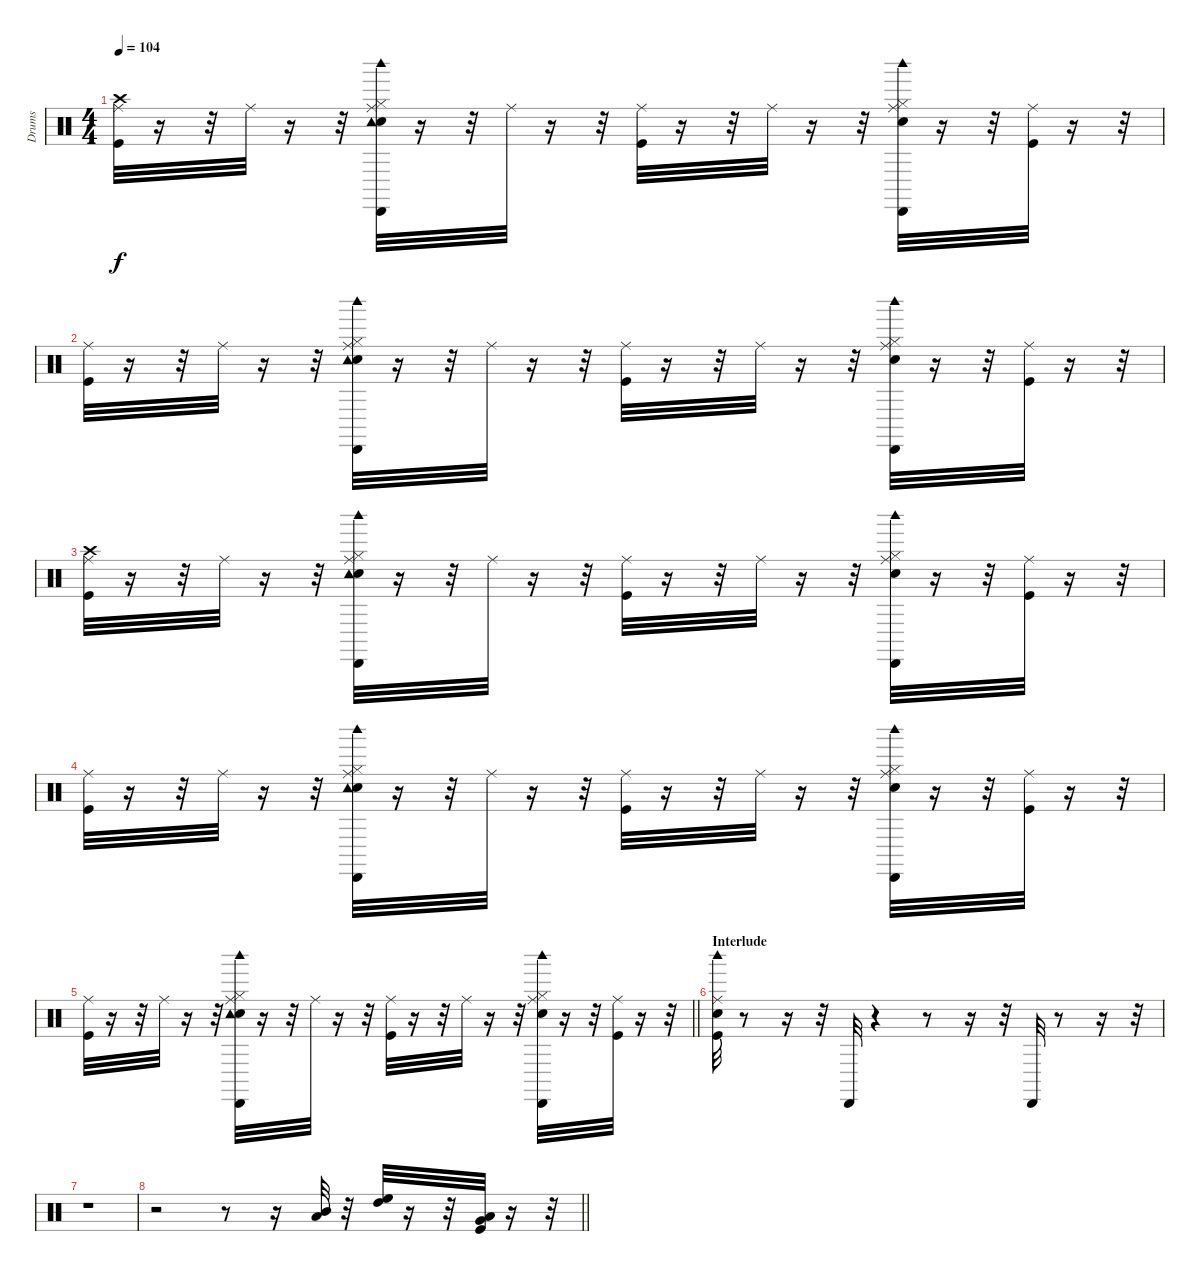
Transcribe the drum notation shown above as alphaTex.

\track ("Drums" "Drums") {instrument percussion}
\staff {score}
\articulation defaults
\ts (4 4)
\tempo 104
\clef neutral
\ks c
("Kick (hit)" "Crash high (hit)" "Ride (middle)").32{dy f} r.16 r.32 "Ride (middle)".32 r.16 r.32 ("Snare (hit) 2" "Hi-Hat (closed)" "Ride (middle)" "Tambourine (hit)" "Cabasa (hit)" "Woodblock high (hit)").32 r.16 r.32 "Ride (middle)".32 r.16 r.32 ("Kick (hit)" "Ride (middle)").32 r.16 r.32 "Ride (middle)".32 r.16 r.32 ("Snare (hit) 2" "Hi-Hat (closed)" "Ride (middle)" "Cabasa (hit)" "Woodblock high (hit)").32 r.16 r.32 ("Kick (hit)" "Ride (middle)").32 r.16 r.32 |
("Kick (hit)" "Ride (middle)").32 r.16 r.32 "Ride (middle)".32 r.16 r.32 ("Snare (hit) 2" "Hi-Hat (closed)" "Ride (middle)" "Tambourine (hit)" "Cabasa (hit)" "Woodblock high (hit)").32 r.16 r.32 "Ride (middle)".32 r.16 r.32 ("Kick (hit)" "Ride (middle)").32 r.16 r.32 "Ride (middle)".32 r.16 r.32 ("Snare (hit) 2" "Hi-Hat (closed)" "Ride (middle)" "Cabasa (hit)" "Woodblock high (hit)").32 r.16 r.32 ("Kick (hit)" "Ride (middle)").32 r.16 r.32 |
("Kick (hit)" "Crash high (hit)" "Ride (middle)").32 r.16 r.32 "Ride (middle)".32 r.16 r.32 ("Snare (hit) 2" "Hi-Hat (closed)" "Ride (middle)" "Tambourine (hit)" "Cabasa (hit)" "Woodblock high (hit)").32 r.16 r.32 "Ride (middle)".32 r.16 r.32 ("Kick (hit)" "Ride (middle)").32 r.16 r.32 "Ride (middle)".32 r.16 r.32 ("Snare (hit) 2" "Hi-Hat (closed)" "Ride (middle)" "Cabasa (hit)" "Woodblock high (hit)").32 r.16 r.32 ("Kick (hit)" "Ride (middle)").32 r.16 r.32 |
("Kick (hit)" "Ride (middle)").32 r.16 r.32 "Ride (middle)".32 r.16 r.32 ("Snare (hit) 2" "Hi-Hat (closed)" "Ride (middle)" "Tambourine (hit)" "Cabasa (hit)" "Woodblock high (hit)").32 r.16 r.32 "Ride (middle)".32 r.16 r.32 ("Kick (hit)" "Ride (middle)").32 r.16 r.32 "Ride (middle)".32 r.16 r.32 ("Snare (hit) 2" "Hi-Hat (closed)" "Ride (middle)" "Cabasa (hit)" "Woodblock high (hit)").32 r.16 r.32 ("Kick (hit)" "Ride (middle)").32 r.16 r.32 |
\barLineRight lightlight
("Kick (hit)" "Ride (middle)").32 r.16 r.32 "Ride (middle)".32 r.16 r.32 ("Snare (hit) 2" "Hi-Hat (closed)" "Ride (middle)" "Tambourine (hit)" "Cabasa (hit)" "Woodblock high (hit)").32 r.16 r.32 "Ride (middle)".32 r.16 r.32 ("Kick (hit)" "Ride (middle)").32 r.16 r.32 "Ride (middle)".32 r.16 r.32 ("Snare (hit) 2" "Hi-Hat (closed)" "Ride (middle)" "Cabasa (hit)" "Woodblock high (hit)").32 r.16 r.32 ("Kick (hit)" "Ride (middle)").32 r.16 r.32 |
\section ("" "Interlude")
("Kick (hit)" "Snare (hit) 2" "Ride (middle)" "Woodblock high (hit)").32 r.8 r.16 r.32 "Cabasa (hit)".32 r.4 r.8 r.16 r.32 "Cabasa (hit)".32 r.8 r.16 r.32 |
r.1 |
\barLineRight lightlight
r.2 r.8 r.16 ("Low Tom (hit)" "Mid Tom (hit)").32 r.32 ("High Tom (hit)" "High Floor Tom (hit)").32 r.16 r.32 ("Kick (hit)" "Low Floor Tom (hit)" "Very Low Tom (hit)").32 r.16 r.32
